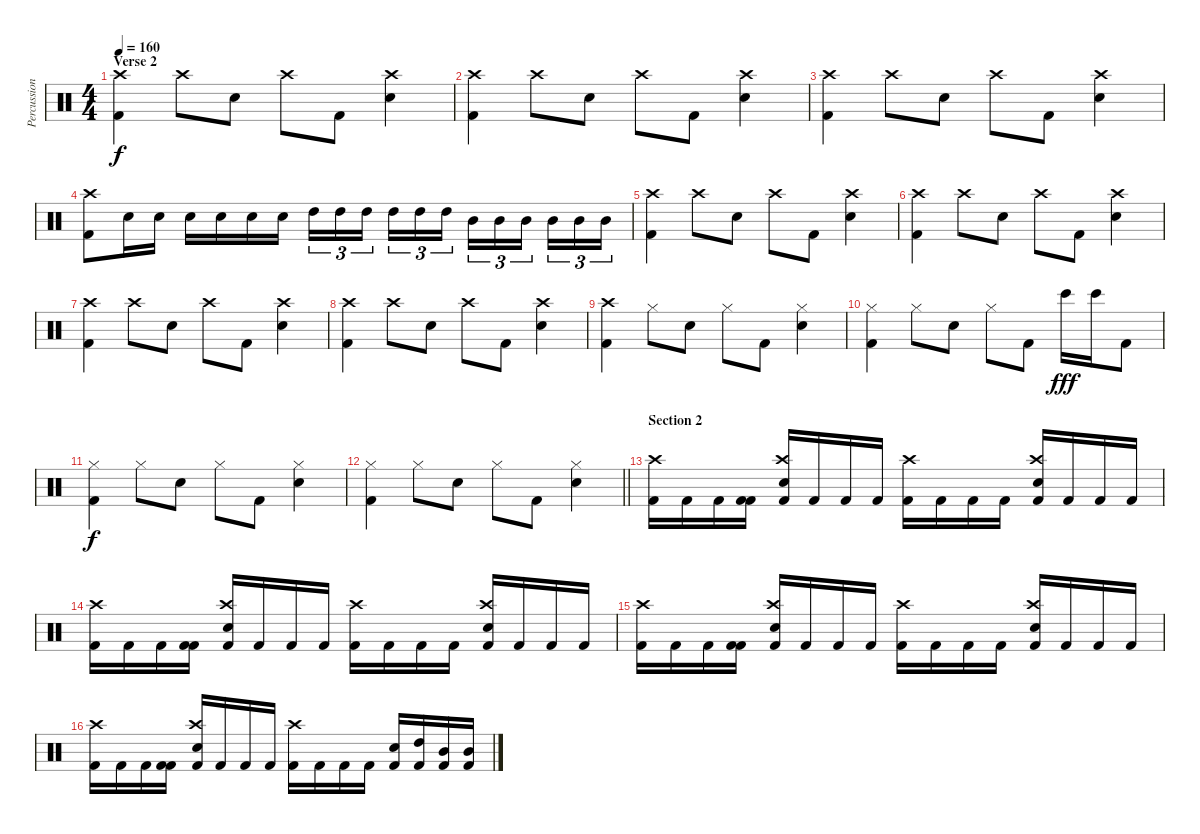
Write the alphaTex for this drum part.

\track ("Percussion" "Percussion") {instrument percussion}
\staff {score}
\articulation defaults
\ts (4 4)
\section ("" "Verse 2")
\tempo 160
\clef neutral
\ks c
("Kick (hit) 2" "Crash high (hit)").4{dy f} "Crash high (hit)".8 "Snare (hit) 2".8 "Crash high (hit)".8 "Kick (hit) 2".8 ("Snare (hit) 2" "Crash high (hit)").4 |
("Kick (hit) 2" "Crash high (hit)").4 "Crash high (hit)".8 "Snare (hit) 2".8 "Crash high (hit)".8 "Kick (hit) 2".8 ("Snare (hit) 2" "Crash high (hit)").4 |
("Kick (hit) 2" "Crash high (hit)").4 "Crash high (hit)".8 "Snare (hit) 2".8 "Crash high (hit)".8 "Kick (hit) 2".8 ("Snare (hit) 2" "Crash high (hit)").4 |
("Kick (hit) 2" "Crash high (hit)").8 "Snare (hit) 2".16 "Snare (hit) 2".16 "Snare (hit) 2".16 "Snare (hit) 2".16 "Snare (hit) 2".16 "Snare (hit) 2".16 "High Tom (hit)".16{tu (3 2)} "High Tom (hit)".16{tu (3 2)} "High Tom (hit)".16{tu (3 2) beam splitsecondary} "High Tom (hit)".16{tu (3 2)} "High Tom (hit)".16{tu (3 2)} "High Tom (hit)".16{tu (3 2)} "Mid Tom (hit)".16{tu (3 2)} "Mid Tom (hit)".16{tu (3 2)} "Mid Tom (hit)".16{tu (3 2) beam splitsecondary} "Mid Tom (hit)".16{tu (3 2)} "Mid Tom (hit)".16{tu (3 2)} "Mid Tom (hit)".16{tu (3 2)} |
("Kick (hit) 2" "Crash high (hit)").4 "Crash high (hit)".8 "Snare (hit) 2".8 "Crash high (hit)".8 "Kick (hit) 2".8 ("Snare (hit) 2" "Crash high (hit)").4 |
("Kick (hit) 2" "Crash high (hit)").4 "Crash high (hit)".8 "Snare (hit) 2".8 "Crash high (hit)".8 "Kick (hit) 2".8 ("Snare (hit) 2" "Crash high (hit)").4 |
("Kick (hit) 2" "Crash high (hit)").4 "Crash high (hit)".8 "Snare (hit) 2".8 "Crash high (hit)".8 "Kick (hit) 2".8 ("Snare (hit) 2" "Crash high (hit)").4 |
("Kick (hit) 2" "Crash high (hit)").4 "Crash high (hit)".8 "Snare (hit) 2".8 "Crash high (hit)".8 "Kick (hit) 2".8 ("Snare (hit) 2" "Crash high (hit)").4 |
("Kick (hit) 2" "Crash high (hit)").4 "Hi-Hat (closed)".8 "Snare (hit) 2".8 "Hi-Hat (closed)".8 "Kick (hit) 2".8 ("Snare (hit) 2" "Hi-Hat (closed)").4 |
("Kick (hit) 2" "Hi-Hat (closed)").4 "Hi-Hat (closed)".8 "Snare (hit) 2".8 "Hi-Hat (closed)".8 "Kick (hit) 2".8 "Bongo High (hit)".16{dy fff} "Bongo High (hit)".16 "Kick (hit) 2".8 |
("Kick (hit) 2" "Hi-Hat (closed)").4{dy f} "Hi-Hat (closed)".8 "Snare (hit) 2".8 "Hi-Hat (closed)".8 "Kick (hit) 2".8 ("Snare (hit) 2" "Hi-Hat (closed)").4 |
\barLineRight lightlight
("Kick (hit) 2" "Hi-Hat (closed)").4 "Hi-Hat (closed)".8 "Snare (hit) 2".8 "Hi-Hat (closed)".8 "Kick (hit) 2".8 ("Snare (hit) 2" "Hi-Hat (closed)").4 |
\section ("" "Section 2")
("Kick (hit) 2" "Crash high (hit)").16 "Kick (hit) 2".16 "Kick (hit) 2".16 ("Kick (hit) 2" "Kick (hit) 2").16 ("Kick (hit) 2" "Crash high (hit)" "Snare (hit) 2").16 "Kick (hit) 2".16 "Kick (hit) 2".16 "Kick (hit) 2".16 ("Kick (hit) 2" "Crash high (hit)").16 "Kick (hit) 2".16 "Kick (hit) 2".16 "Kick (hit) 2".16 ("Kick (hit) 2" "Crash high (hit)" "Snare (hit) 2").16 "Kick (hit) 2".16 "Kick (hit) 2".16 "Kick (hit) 2".16 |
("Kick (hit) 2" "Crash high (hit)").16 "Kick (hit) 2".16 "Kick (hit) 2".16 ("Kick (hit) 2" "Kick (hit) 2").16 ("Kick (hit) 2" "Crash high (hit)" "Snare (hit) 2").16 "Kick (hit) 2".16 "Kick (hit) 2".16 "Kick (hit) 2".16 ("Kick (hit) 2" "Crash high (hit)").16 "Kick (hit) 2".16 "Kick (hit) 2".16 "Kick (hit) 2".16 ("Kick (hit) 2" "Crash high (hit)" "Snare (hit) 2").16 "Kick (hit) 2".16 "Kick (hit) 2".16 "Kick (hit) 2".16 |
("Kick (hit) 2" "Crash high (hit)").16 "Kick (hit) 2".16 "Kick (hit) 2".16 ("Kick (hit) 2" "Kick (hit) 2").16 ("Kick (hit) 2" "Crash high (hit)" "Snare (hit) 2").16 "Kick (hit) 2".16 "Kick (hit) 2".16 "Kick (hit) 2".16 ("Kick (hit) 2" "Crash high (hit)").16 "Kick (hit) 2".16 "Kick (hit) 2".16 "Kick (hit) 2".16 ("Kick (hit) 2" "Crash high (hit)" "Snare (hit) 2").16 "Kick (hit) 2".16 "Kick (hit) 2".16 "Kick (hit) 2".16 |
("Kick (hit) 2" "Crash high (hit)").16 "Kick (hit) 2".16 "Kick (hit) 2".16 ("Kick (hit) 2" "Kick (hit) 2").16 ("Kick (hit) 2" "Crash high (hit)" "Snare (hit) 2").16 "Kick (hit) 2".16 "Kick (hit) 2".16 "Kick (hit) 2".16 ("Kick (hit) 2" "Crash high (hit)").16 "Kick (hit) 2".16 "Kick (hit) 2".16 "Kick (hit) 2".16 ("Kick (hit) 2" "Snare (hit) 2").16 ("Kick (hit) 2" "High Tom (hit)").16 ("Kick (hit) 2" "Mid Tom (hit)").16 ("Kick (hit) 2" "Mid Tom (hit)").16
